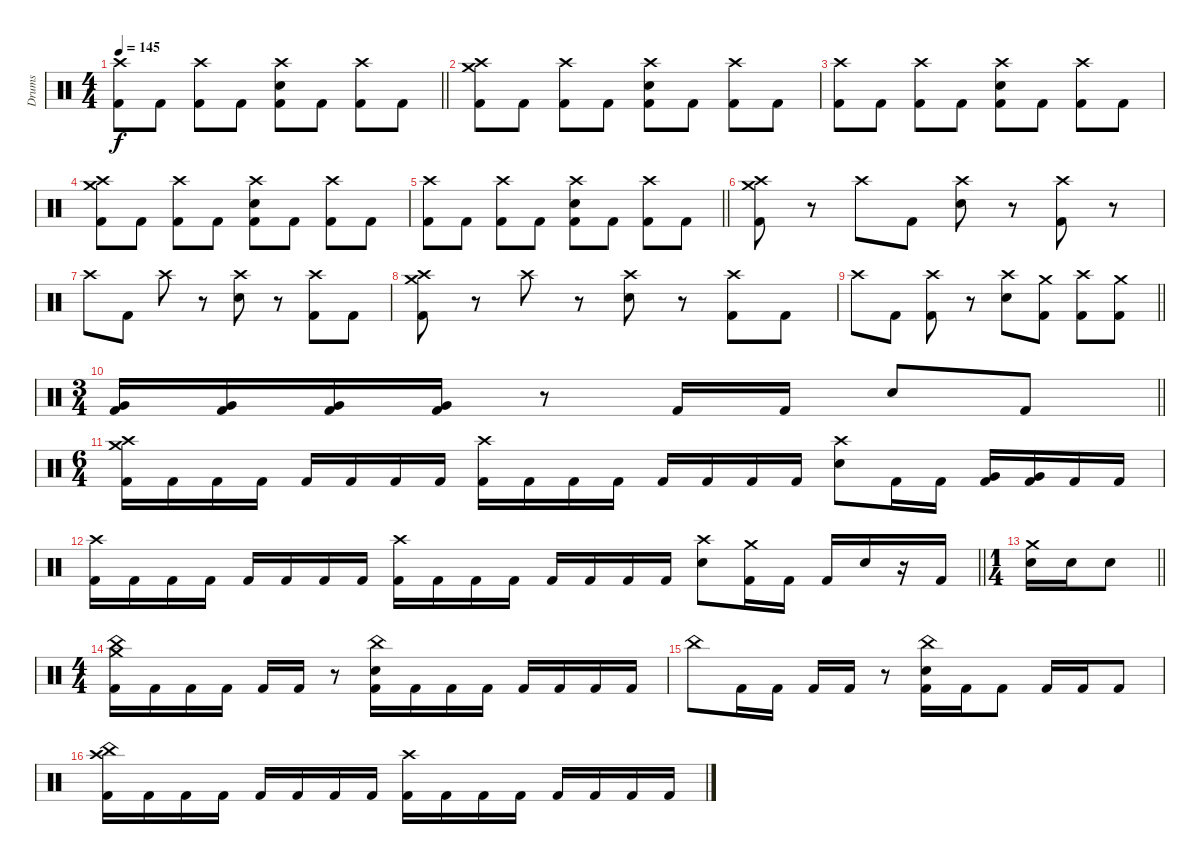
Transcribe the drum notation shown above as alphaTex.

\track ("Drums" "Drums") {instrument percussion}
\staff {score}
\articulation defaults
\ts (4 4)
\tempo 145
\clef neutral
\barLineRight lightlight
\ks c
("Crash high (hit)" "Kick (hit) 2").8{dy f} "Kick (hit) 2".8 ("Crash high (hit)" "Kick (hit) 2").8 "Kick (hit) 2".8 ("Crash high (hit)" "Electric Snare (hit)" "Kick (hit) 2").8 "Kick (hit) 2".8 ("Crash high (hit)" "Kick (hit) 2").8 "Kick (hit) 2".8 |
("Crash high (hit)" "Crash medium (hit)" "Kick (hit) 2").8 "Kick (hit) 2".8 ("Crash high (hit)" "Kick (hit) 2").8 "Kick (hit) 2".8 ("Crash high (hit)" "Electric Snare (hit)" "Kick (hit) 2").8 "Kick (hit) 2".8 ("Crash high (hit)" "Kick (hit) 2").8 "Kick (hit) 2".8 |
("Crash high (hit)" "Kick (hit) 2").8 "Kick (hit) 2".8 ("Crash high (hit)" "Kick (hit) 2").8 "Kick (hit) 2".8 ("Crash high (hit)" "Electric Snare (hit)" "Kick (hit) 2").8 "Kick (hit) 2".8 ("Crash high (hit)" "Kick (hit) 2").8 "Kick (hit) 2".8 |
("Crash high (hit)" "Crash medium (hit)" "Kick (hit) 2").8 "Kick (hit) 2".8 ("Crash high (hit)" "Kick (hit) 2").8 "Kick (hit) 2".8 ("Crash high (hit)" "Electric Snare (hit)" "Kick (hit) 2").8 "Kick (hit) 2".8 ("Crash high (hit)" "Kick (hit) 2").8 "Kick (hit) 2".8 |
\barLineRight lightlight
("Crash high (hit)" "Kick (hit) 2").8 "Kick (hit) 2".8 ("Crash high (hit)" "Kick (hit) 2").8 "Kick (hit) 2".8 ("Crash high (hit)" "Electric Snare (hit)" "Kick (hit) 2").8 "Kick (hit) 2".8 ("Crash high (hit)" "Kick (hit) 2").8 "Kick (hit) 2".8 |
("Crash high (hit)" "Crash medium (hit)" "Kick (hit) 2").8 r.8 "Crash high (hit)".8 "Kick (hit) 2".8 ("Crash high (hit)" "Electric Snare (hit)").8 r.8 ("Crash high (hit)" "Kick (hit) 2").8 r.8 |
"Crash high (hit)".8 "Kick (hit) 2".8 "Crash high (hit)".8 r.8 ("Crash high (hit)" "Electric Snare (hit)").8 r.8 ("Crash high (hit)" "Kick (hit) 2").8 "Kick (hit) 2".8 |
("Crash high (hit)" "Crash medium (hit)" "Kick (hit) 2").8 r.8 "Crash high (hit)".8 r.8 ("Crash high (hit)" "Electric Snare (hit)").8 r.8 ("Crash high (hit)" "Kick (hit) 2").8 "Kick (hit) 2".8 |
\barLineRight lightlight "Crash high (hit)".8 "Kick (hit) 2".8
("Crash high (hit)" "Kick (hit) 2").8 r.8 ("Crash high (hit)" "Electric Snare (hit)").8 ("Crash medium (hit)" "Kick (hit) 2").8 ("Crash high (hit)" "Kick (hit) 2").8 ("Crash medium (hit)" "Kick (hit) 2").8 |
\ts (3 4)
\barLineRight lightlight
("Very Low Tom (hit)" "Kick (hit) 2").16 ("Very Low Tom (hit)" "Kick (hit) 2").16 ("Very Low Tom (hit)" "Kick (hit) 2").16 ("Very Low Tom (hit)" "Kick (hit) 2").16 r.8 "Kick (hit) 2".16 "Kick (hit) 2".16 "Electric Snare (hit)".8 "Kick (hit) 2".8 |
\ts (6 4)
("Crash high (hit)" "Crash medium (hit)" "Kick (hit) 2").16 "Kick (hit) 2".16 "Kick (hit) 2".16 "Kick (hit) 2".16 "Kick (hit) 2".16 "Kick (hit) 2".16 "Kick (hit) 2".16 "Kick (hit) 2".16 ("Crash high (hit)" "Kick (hit) 2").16 "Kick (hit) 2".16 "Kick (hit) 2".16 "Kick (hit) 2".16 "Kick (hit) 2".16 "Kick (hit) 2".16 "Kick (hit) 2".16 "Kick (hit) 2".16 ("Crash high (hit)" "Electric Snare (hit)").8 "Kick (hit) 2".16 "Kick (hit) 2".16 ("Very Low Tom (hit)" "Kick (hit) 2").16 ("Very Low Tom (hit)" "Kick (hit) 2").16 "Kick (hit) 2".16 "Kick (hit) 2".16 |
\barLineRight lightlight
("Crash high (hit)" "Kick (hit) 2").16 "Kick (hit) 2".16 "Kick (hit) 2".16 "Kick (hit) 2".16 "Kick (hit) 2".16 "Kick (hit) 2".16 "Kick (hit) 2".16 "Kick (hit) 2".16 ("Crash high (hit)" "Kick (hit) 2").16 "Kick (hit) 2".16 "Kick (hit) 2".16 "Kick (hit) 2".16 "Kick (hit) 2".16 "Kick (hit) 2".16 "Kick (hit) 2".16 "Kick (hit) 2".16 ("Crash high (hit)" "Electric Snare (hit)").8 ("Crash medium (hit)" "Kick (hit) 2").16 "Kick (hit) 2".16 "Kick (hit) 2".16 "Electric Snare (hit)".16 r.16 "Kick (hit) 2".16 |
\ts (1 4)
\barLineRight lightlight
("Crash medium (hit)" "Electric Snare (hit)").16 "Electric Snare (hit)".16 "Electric Snare (hit)".8 |
\ts (4 4)
("China (hit)" "Crash medium (hit)" "Kick (hit) 2").16 "Kick (hit) 2".16 "Kick (hit) 2".16 "Kick (hit) 2".16 "Kick (hit) 2".16 "Kick (hit) 2".16 r.8 ("China (hit)" "Electric Snare (hit)" "Kick (hit) 2").16 "Kick (hit) 2".16 "Kick (hit) 2".16 "Kick (hit) 2".16 "Kick (hit) 2".16 "Kick (hit) 2".16 "Kick (hit) 2".16 "Kick (hit) 2".16 |
"China (hit)".8 "Kick (hit) 2".16 "Kick (hit) 2".16 "Kick (hit) 2".16 "Kick (hit) 2".16 r.8 ("China (hit)" "Electric Snare (hit)" "Kick (hit) 2").16 "Kick (hit) 2".16 "Kick (hit) 2".8 "Kick (hit) 2".16 "Kick (hit) 2".16 "Kick (hit) 2".8 |
("Crash high (hit)" "China (hit)" "Kick (hit) 2").16 "Kick (hit) 2".16 "Kick (hit) 2".16 "Kick (hit) 2".16 "Kick (hit) 2".16 "Kick (hit) 2".16 "Kick (hit) 2".16 "Kick (hit) 2".16 ("Crash high (hit)" "Kick (hit) 2").16 "Kick (hit) 2".16 "Kick (hit) 2".16 "Kick (hit) 2".16 "Kick (hit) 2".16 "Kick (hit) 2".16 "Kick (hit) 2".16 "Kick (hit) 2".16
